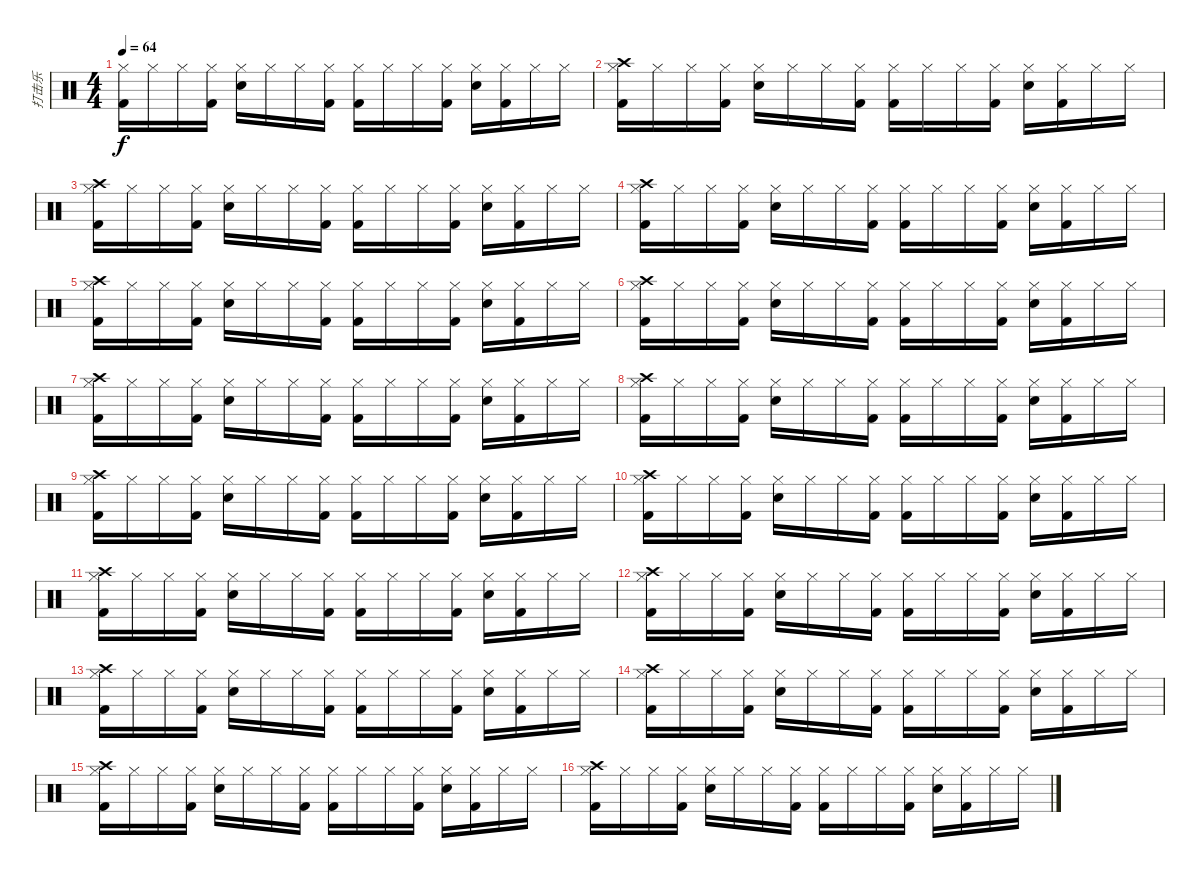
\track ("打击乐" "打击乐") {instrument percussion}
\staff {score}
\articulation defaults
\ts (4 4)
\tempo 64
\clef neutral
\ks c
("Hi-Hat (closed)" "Kick (hit) 2").16{dy f} "Hi-Hat (closed)".16 "Hi-Hat (closed)".16 ("Hi-Hat (closed)" "Kick (hit) 2").16 ("Hi-Hat (closed)" "Snare (hit) 2").16 "Hi-Hat (closed)".16 "Hi-Hat (closed)".16 ("Hi-Hat (closed)" "Kick (hit) 2").16 ("Hi-Hat (closed)" "Kick (hit) 2").16 "Hi-Hat (closed)".16 "Hi-Hat (closed)".16 ("Hi-Hat (closed)" "Kick (hit) 2").16 ("Hi-Hat (closed)" "Snare (hit) 2").16 ("Hi-Hat (closed)" "Kick (hit) 2").16 "Hi-Hat (closed)".16 "Hi-Hat (closed)".16 |
("Crash high (hit)" "Hi-Hat (closed)" "Kick (hit) 2").16 "Hi-Hat (closed)".16 "Hi-Hat (closed)".16 ("Hi-Hat (closed)" "Kick (hit) 2").16 ("Hi-Hat (closed)" "Snare (hit) 2").16 "Hi-Hat (closed)".16 "Hi-Hat (closed)".16 ("Hi-Hat (closed)" "Kick (hit) 2").16 ("Hi-Hat (closed)" "Kick (hit) 2").16 "Hi-Hat (closed)".16 "Hi-Hat (closed)".16 ("Hi-Hat (closed)" "Kick (hit) 2").16 ("Hi-Hat (closed)" "Snare (hit) 2").16 ("Hi-Hat (closed)" "Kick (hit) 2").16 "Hi-Hat (closed)".16 "Hi-Hat (closed)".16 |
("Crash high (hit)" "Hi-Hat (closed)" "Kick (hit) 2").16 "Hi-Hat (closed)".16 "Hi-Hat (closed)".16 ("Hi-Hat (closed)" "Kick (hit) 2").16 ("Hi-Hat (closed)" "Snare (hit) 2").16 "Hi-Hat (closed)".16 "Hi-Hat (closed)".16 ("Hi-Hat (closed)" "Kick (hit) 2").16 ("Hi-Hat (closed)" "Kick (hit) 2").16 "Hi-Hat (closed)".16 "Hi-Hat (closed)".16 ("Hi-Hat (closed)" "Kick (hit) 2").16 ("Hi-Hat (closed)" "Snare (hit) 2").16 ("Hi-Hat (closed)" "Kick (hit) 2").16 "Hi-Hat (closed)".16 "Hi-Hat (closed)".16 |
("Crash high (hit)" "Hi-Hat (closed)" "Kick (hit) 2").16 "Hi-Hat (closed)".16 "Hi-Hat (closed)".16 ("Hi-Hat (closed)" "Kick (hit) 2").16 ("Hi-Hat (closed)" "Snare (hit) 2").16 "Hi-Hat (closed)".16 "Hi-Hat (closed)".16 ("Hi-Hat (closed)" "Kick (hit) 2").16 ("Hi-Hat (closed)" "Kick (hit) 2").16 "Hi-Hat (closed)".16 "Hi-Hat (closed)".16 ("Hi-Hat (closed)" "Kick (hit) 2").16 ("Hi-Hat (closed)" "Snare (hit) 2").16 ("Hi-Hat (closed)" "Kick (hit) 2").16 "Hi-Hat (closed)".16 "Hi-Hat (closed)".16 |
("Crash high (hit)" "Hi-Hat (closed)" "Kick (hit) 2").16 "Hi-Hat (closed)".16 "Hi-Hat (closed)".16 ("Hi-Hat (closed)" "Kick (hit) 2").16 ("Hi-Hat (closed)" "Snare (hit) 2").16 "Hi-Hat (closed)".16 "Hi-Hat (closed)".16 ("Hi-Hat (closed)" "Kick (hit) 2").16 ("Hi-Hat (closed)" "Kick (hit) 2").16 "Hi-Hat (closed)".16 "Hi-Hat (closed)".16 ("Hi-Hat (closed)" "Kick (hit) 2").16 ("Hi-Hat (closed)" "Snare (hit) 2").16 ("Hi-Hat (closed)" "Kick (hit) 2").16 "Hi-Hat (closed)".16 "Hi-Hat (closed)".16 |
("Crash high (hit)" "Hi-Hat (closed)" "Kick (hit) 2").16 "Hi-Hat (closed)".16 "Hi-Hat (closed)".16 ("Hi-Hat (closed)" "Kick (hit) 2").16 ("Hi-Hat (closed)" "Snare (hit) 2").16 "Hi-Hat (closed)".16 "Hi-Hat (closed)".16 ("Hi-Hat (closed)" "Kick (hit) 2").16 ("Hi-Hat (closed)" "Kick (hit) 2").16 "Hi-Hat (closed)".16 "Hi-Hat (closed)".16 ("Hi-Hat (closed)" "Kick (hit) 2").16 ("Hi-Hat (closed)" "Snare (hit) 2").16 ("Hi-Hat (closed)" "Kick (hit) 2").16 "Hi-Hat (closed)".16 "Hi-Hat (closed)".16 |
("Crash high (hit)" "Hi-Hat (closed)" "Kick (hit) 2").16 "Hi-Hat (closed)".16 "Hi-Hat (closed)".16 ("Hi-Hat (closed)" "Kick (hit) 2").16 ("Hi-Hat (closed)" "Snare (hit) 2").16 "Hi-Hat (closed)".16 "Hi-Hat (closed)".16 ("Hi-Hat (closed)" "Kick (hit) 2").16 ("Hi-Hat (closed)" "Kick (hit) 2").16 "Hi-Hat (closed)".16 "Hi-Hat (closed)".16 ("Hi-Hat (closed)" "Kick (hit) 2").16 ("Hi-Hat (closed)" "Snare (hit) 2").16 ("Hi-Hat (closed)" "Kick (hit) 2").16 "Hi-Hat (closed)".16 "Hi-Hat (closed)".16 |
("Crash high (hit)" "Hi-Hat (closed)" "Kick (hit) 2").16 "Hi-Hat (closed)".16 "Hi-Hat (closed)".16 ("Hi-Hat (closed)" "Kick (hit) 2").16 ("Hi-Hat (closed)" "Snare (hit) 2").16 "Hi-Hat (closed)".16 "Hi-Hat (closed)".16 ("Hi-Hat (closed)" "Kick (hit) 2").16 ("Hi-Hat (closed)" "Kick (hit) 2").16 "Hi-Hat (closed)".16 "Hi-Hat (closed)".16 ("Hi-Hat (closed)" "Kick (hit) 2").16 ("Hi-Hat (closed)" "Snare (hit) 2").16 ("Hi-Hat (closed)" "Kick (hit) 2").16 "Hi-Hat (closed)".16 "Hi-Hat (closed)".16 |
("Crash high (hit)" "Hi-Hat (closed)" "Kick (hit) 2").16 "Hi-Hat (closed)".16 "Hi-Hat (closed)".16 ("Hi-Hat (closed)" "Kick (hit) 2").16 ("Hi-Hat (closed)" "Snare (hit) 2").16 "Hi-Hat (closed)".16 "Hi-Hat (closed)".16 ("Hi-Hat (closed)" "Kick (hit) 2").16 ("Hi-Hat (closed)" "Kick (hit) 2").16 "Hi-Hat (closed)".16 "Hi-Hat (closed)".16 ("Hi-Hat (closed)" "Kick (hit) 2").16 ("Hi-Hat (closed)" "Snare (hit) 2").16 ("Hi-Hat (closed)" "Kick (hit) 2").16 "Hi-Hat (closed)".16 "Hi-Hat (closed)".16 |
("Crash high (hit)" "Hi-Hat (closed)" "Kick (hit) 2").16 "Hi-Hat (closed)".16 "Hi-Hat (closed)".16 ("Hi-Hat (closed)" "Kick (hit) 2").16 ("Hi-Hat (closed)" "Snare (hit) 2").16 "Hi-Hat (closed)".16 "Hi-Hat (closed)".16 ("Hi-Hat (closed)" "Kick (hit) 2").16 ("Hi-Hat (closed)" "Kick (hit) 2").16 "Hi-Hat (closed)".16 "Hi-Hat (closed)".16 ("Hi-Hat (closed)" "Kick (hit) 2").16 ("Hi-Hat (closed)" "Snare (hit) 2").16 ("Hi-Hat (closed)" "Kick (hit) 2").16 "Hi-Hat (closed)".16 "Hi-Hat (closed)".16 |
("Crash high (hit)" "Hi-Hat (closed)" "Kick (hit) 2").16 "Hi-Hat (closed)".16 "Hi-Hat (closed)".16 ("Hi-Hat (closed)" "Kick (hit) 2").16 ("Hi-Hat (closed)" "Snare (hit) 2").16 "Hi-Hat (closed)".16 "Hi-Hat (closed)".16 ("Hi-Hat (closed)" "Kick (hit) 2").16 ("Hi-Hat (closed)" "Kick (hit) 2").16 "Hi-Hat (closed)".16 "Hi-Hat (closed)".16 ("Hi-Hat (closed)" "Kick (hit) 2").16 ("Hi-Hat (closed)" "Snare (hit) 2").16 ("Hi-Hat (closed)" "Kick (hit) 2").16 "Hi-Hat (closed)".16 "Hi-Hat (closed)".16 |
("Crash high (hit)" "Hi-Hat (closed)" "Kick (hit) 2").16 "Hi-Hat (closed)".16 "Hi-Hat (closed)".16 ("Hi-Hat (closed)" "Kick (hit) 2").16 ("Hi-Hat (closed)" "Snare (hit) 2").16 "Hi-Hat (closed)".16 "Hi-Hat (closed)".16 ("Hi-Hat (closed)" "Kick (hit) 2").16 ("Hi-Hat (closed)" "Kick (hit) 2").16 "Hi-Hat (closed)".16 "Hi-Hat (closed)".16 ("Hi-Hat (closed)" "Kick (hit) 2").16 ("Hi-Hat (closed)" "Snare (hit) 2").16 ("Hi-Hat (closed)" "Kick (hit) 2").16 "Hi-Hat (closed)".16 "Hi-Hat (closed)".16 |
("Crash high (hit)" "Hi-Hat (closed)" "Kick (hit) 2").16 "Hi-Hat (closed)".16 "Hi-Hat (closed)".16 ("Hi-Hat (closed)" "Kick (hit) 2").16 ("Hi-Hat (closed)" "Snare (hit) 2").16 "Hi-Hat (closed)".16 "Hi-Hat (closed)".16 ("Hi-Hat (closed)" "Kick (hit) 2").16 ("Hi-Hat (closed)" "Kick (hit) 2").16 "Hi-Hat (closed)".16 "Hi-Hat (closed)".16 ("Hi-Hat (closed)" "Kick (hit) 2").16 ("Hi-Hat (closed)" "Snare (hit) 2").16 ("Hi-Hat (closed)" "Kick (hit) 2").16 "Hi-Hat (closed)".16 "Hi-Hat (closed)".16 |
("Crash high (hit)" "Hi-Hat (closed)" "Kick (hit) 2").16 "Hi-Hat (closed)".16 "Hi-Hat (closed)".16 ("Hi-Hat (closed)" "Kick (hit) 2").16 ("Hi-Hat (closed)" "Snare (hit) 2").16 "Hi-Hat (closed)".16 "Hi-Hat (closed)".16 ("Hi-Hat (closed)" "Kick (hit) 2").16 ("Hi-Hat (closed)" "Kick (hit) 2").16 "Hi-Hat (closed)".16 "Hi-Hat (closed)".16 ("Hi-Hat (closed)" "Kick (hit) 2").16 ("Hi-Hat (closed)" "Snare (hit) 2").16 ("Hi-Hat (closed)" "Kick (hit) 2").16 "Hi-Hat (closed)".16 "Hi-Hat (closed)".16 |
("Crash high (hit)" "Hi-Hat (closed)" "Kick (hit) 2").16 "Hi-Hat (closed)".16 "Hi-Hat (closed)".16 ("Hi-Hat (closed)" "Kick (hit) 2").16 ("Hi-Hat (closed)" "Snare (hit) 2").16 "Hi-Hat (closed)".16 "Hi-Hat (closed)".16 ("Hi-Hat (closed)" "Kick (hit) 2").16 ("Hi-Hat (closed)" "Kick (hit) 2").16 "Hi-Hat (closed)".16 "Hi-Hat (closed)".16 ("Hi-Hat (closed)" "Kick (hit) 2").16 ("Hi-Hat (closed)" "Snare (hit) 2").16 ("Hi-Hat (closed)" "Kick (hit) 2").16 "Hi-Hat (closed)".16 "Hi-Hat (closed)".16 |
("Crash high (hit)" "Hi-Hat (closed)" "Kick (hit) 2").16 "Hi-Hat (closed)".16 "Hi-Hat (closed)".16 ("Hi-Hat (closed)" "Kick (hit) 2").16 ("Hi-Hat (closed)" "Snare (hit) 2").16 "Hi-Hat (closed)".16 "Hi-Hat (closed)".16 ("Hi-Hat (closed)" "Kick (hit) 2").16 ("Hi-Hat (closed)" "Kick (hit) 2").16 "Hi-Hat (closed)".16 "Hi-Hat (closed)".16 ("Hi-Hat (closed)" "Kick (hit) 2").16 ("Hi-Hat (closed)" "Snare (hit) 2").16 ("Hi-Hat (closed)" "Kick (hit) 2").16 "Hi-Hat (closed)".16 "Hi-Hat (closed)".16
